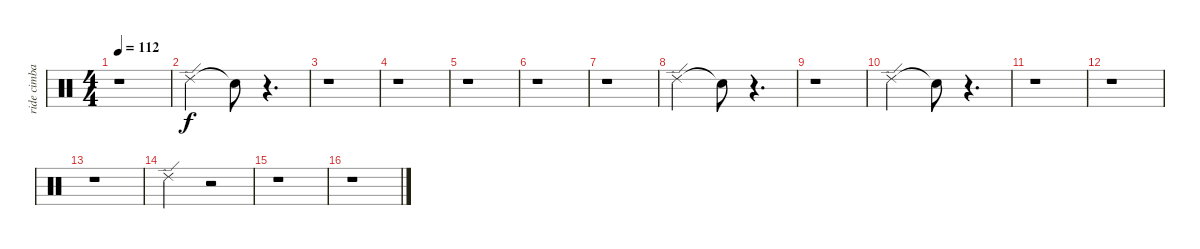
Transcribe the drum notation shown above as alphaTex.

\track ("ride cimbal" "ride cimba") {instrument percussion}
\staff {score}
\articulation defaults
\ts (4 4)
\tempo 112
\clef neutral
\ks c
r.1{dy f} |
"Ride (edge) 2".2 "Snare (hit)"{t}.8 r.4{d} |
r.1 |
r.1 |
r.1 |
r.1 |
r.1 |
"Ride (edge) 2".2 "Snare (hit)"{t}.8 r.4{d} |
r.1 |
"Ride (edge) 2".2 "Snare (hit)"{t}.8 r.4{d} |
r.1 |
r.1 |
r.1 |
"Ride (edge) 2".2 r.2 |
r.1 |
r.1
